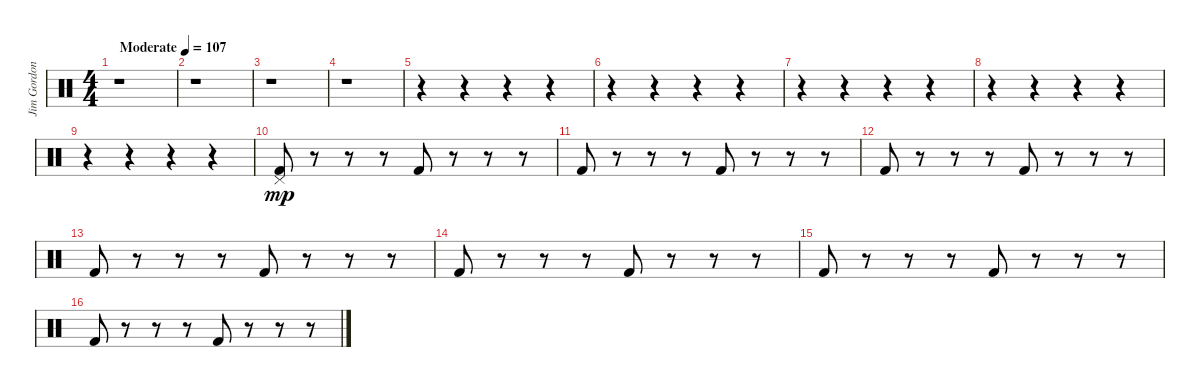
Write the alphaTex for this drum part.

\track ("Jim Gordon (Drums)" "Jim Gordon") {instrument percussion}
\staff {score}
\articulation defaults
\ts (4 4)
\tempo (107 "Moderate")
\clef neutral
\ks c
r.1{dy mp} |
r.1 |
r.1 |
r.1 |
r.4 r.4 r.4 r.4 |
r.4 r.4 r.4 r.4 |
r.4 r.4 r.4 r.4 |
r.4 r.4 r.4 r.4 |
r.4 r.4 r.4 r.4 |
("Kick (hit) 2" "Pedal Hi-Hat (hit)").8 r.8 r.8 r.8 "Kick (hit) 2".8 r.8 r.8 r.8 |
"Kick (hit) 2".8 r.8 r.8 r.8 "Kick (hit) 2".8 r.8 r.8 r.8 |
"Kick (hit) 2".8 r.8 r.8 r.8 "Kick (hit) 2".8 r.8 r.8 r.8 |
"Kick (hit) 2".8 r.8 r.8 r.8 "Kick (hit) 2".8 r.8 r.8 r.8 |
"Kick (hit) 2".8 r.8 r.8 r.8 "Kick (hit) 2".8 r.8 r.8 r.8 |
"Kick (hit) 2".8 r.8 r.8 r.8 "Kick (hit) 2".8 r.8 r.8 r.8 |
"Kick (hit) 2".8 r.8 r.8 r.8 "Kick (hit) 2".8 r.8 r.8 r.8
